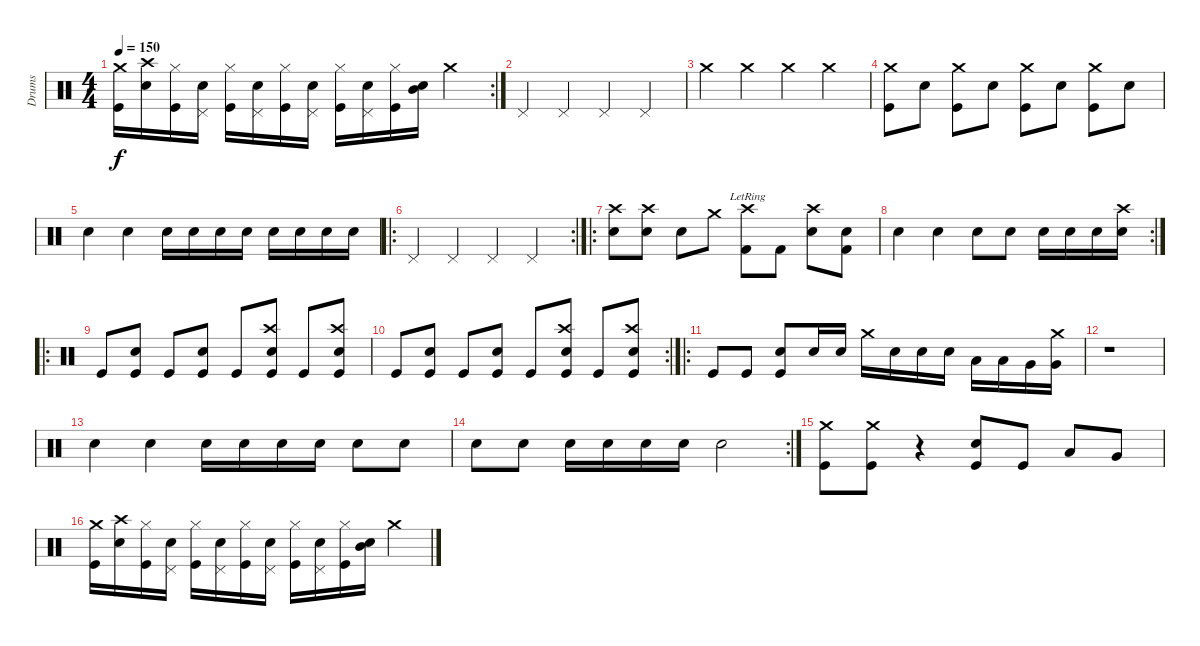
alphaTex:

\track ("Drums" "Drums") {instrument percussion}
\staff {score}
\articulation defaults
\rc 2
\ts (4 4)
\tempo 150
\clef neutral
\ks c
("Crash medium (hit)" "Kick (hit)").16{dy f} ("Crash high (hit)" "Snare (hit) 2").16 ("Hi-Hat (closed)" "Kick (hit)").16 ("Pedal Hi-Hat (hit)" "Snare (hit) 2").16 ("Hi-Hat (closed)" "Kick (hit)").16 ("Pedal Hi-Hat (hit)" "Snare (hit) 2").16 ("Hi-Hat (closed)" "Kick (hit)").16 ("Pedal Hi-Hat (hit)" "Snare (hit) 2").16 ("Hi-Hat (closed)" "Kick (hit)").16 ("Pedal Hi-Hat (hit)" "Snare (hit) 2").16 ("Hi-Hat (closed)" "Kick (hit)").16 ("Mid Tom (hit)" "Snare (hit) 2").16 "Crash medium (hit)".4 |
"Pedal Hi-Hat (hit)".4 "Pedal Hi-Hat (hit)".4 "Pedal Hi-Hat (hit)".4 "Pedal Hi-Hat (hit)".4 |
"Crash medium (hit)".4 "Crash medium (hit)".4 "Crash medium (hit)".4 "Crash medium (hit)".4 |
("Crash medium (hit)" "Kick (hit)").8 "Snare (hit) 2".8 ("Crash medium (hit)" "Kick (hit)").8 "Snare (hit) 2".8 ("Crash medium (hit)" "Kick (hit)").8 "Snare (hit) 2".8 ("Crash medium (hit)" "Kick (hit)").8 "Snare (hit) 2".8 |
"Snare (hit) 2".4 "Snare (hit) 2".4 "Snare (hit) 2".16 "Snare (hit) 2".16 "Snare (hit) 2".16 "Snare (hit) 2".16 "Snare (hit) 2".16 "Snare (hit) 2".16 "Snare (hit) 2".16 "Snare (hit) 2".16 |
\ro
\rc 2 "Pedal Hi-Hat (hit)".4 "Pedal Hi-Hat (hit)".4 "Pedal Hi-Hat (hit)".4 "Pedal Hi-Hat (hit)".4
|
\ro
("Crash high (hit)" "Snare (hit) 2").8 ("Crash high (hit)" "Snare (hit) 2").8 "Snare (hit) 2".8 "Crash medium (hit)".8 ("Crash high (hit)"{lr} "Kick (hit) 2").8 "Kick (hit) 2".8 ("Crash high (hit)" "Snare (hit) 2").8 ("Snare (hit) 2" "Kick (hit) 2").8 |
\rc 2 "Snare (hit) 2".4 "Snare (hit) 2".4 "Snare (hit) 2".8 "Snare (hit) 2".8 "Snare (hit) 2".16 "Snare (hit) 2".16 "Snare (hit) 2".16
("Crash high (hit)" "Snare (hit) 2").16 |
\ro "Kick (hit)".8
("Snare (hit) 2" "Kick (hit)").8 "Kick (hit)".8 ("Snare (hit) 2" "Kick (hit)").8 "Kick (hit)".8 ("Crash high (hit)" "Snare (hit) 2" "Kick (hit)").8 "Kick (hit)".8 ("Crash high (hit)" "Snare (hit) 2" "Kick (hit)").8 |
\rc 2 "Kick (hit)".8
("Snare (hit) 2" "Kick (hit)").8 "Kick (hit)".8 ("Snare (hit) 2" "Kick (hit)").8 "Kick (hit)".8 ("Crash high (hit)" "Snare (hit) 2" "Kick (hit)").8 "Kick (hit)".8 ("Crash high (hit)" "Snare (hit) 2" "Kick (hit)").8 |
\ro "Kick (hit)".8 "Kick (hit)".8
("Snare (hit) 2" "Kick (hit)").8 "Snare (hit) 2".16 "Snare (hit) 2".16 "Crash medium (hit)".16 "Snare (hit) 2".16 "Snare (hit) 2".16 "Snare (hit) 2".16 "Low Floor Tom (hit)".16 "Low Floor Tom (hit)".16 "Very Low Tom (hit)".16 ("Very Low Tom (hit)" "Crash medium (hit)").16 |
r.1 |
"Snare (hit) 2".4 "Snare (hit) 2".4 "Snare (hit) 2".16 "Snare (hit) 2".16 "Snare (hit) 2".16 "Snare (hit) 2".16 "Snare (hit) 2".8 "Snare (hit) 2".8 |
\rc 2 "Snare (hit) 2".8 "Snare (hit) 2".8 "Snare (hit) 2".16 "Snare (hit) 2".16 "Snare (hit) 2".16 "Snare (hit) 2".16 "Snare (hit) 2".2
|
("Crash medium (hit)" "Kick (hit)").8 ("Crash medium (hit)" "Kick (hit)").8 r.4 ("Snare (hit) 2" "Kick (hit)").8 "Kick (hit)".8 "Low Floor Tom (hit)".8 "Very Low Tom (hit)".8 |
("Crash medium (hit)" "Kick (hit)").16 ("Crash high (hit)" "Snare (hit) 2").16 ("Hi-Hat (closed)" "Kick (hit)").16 ("Pedal Hi-Hat (hit)" "Snare (hit) 2").16 ("Hi-Hat (closed)" "Kick (hit)").16 ("Pedal Hi-Hat (hit)" "Snare (hit) 2").16 ("Hi-Hat (closed)" "Kick (hit)").16 ("Pedal Hi-Hat (hit)" "Snare (hit) 2").16 ("Hi-Hat (closed)" "Kick (hit)").16 ("Pedal Hi-Hat (hit)" "Snare (hit) 2").16 ("Hi-Hat (closed)" "Kick (hit)").16 ("Mid Tom (hit)" "Snare (hit) 2").16 "Crash medium (hit)".4
